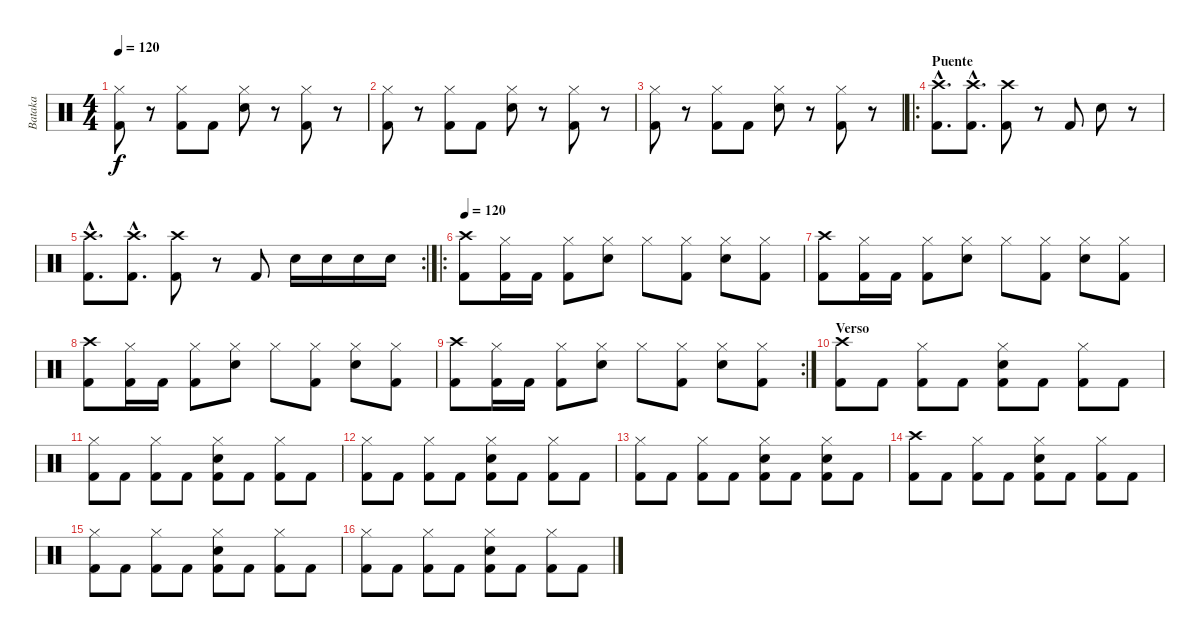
\track ("Bataka" "Bataka") {instrument percussion}
\staff {score}
\articulation defaults
\ts (4 4)
\tempo 120
\clef neutral
\ks c
("Hi-Hat (closed)" "Kick (hit) 2").8{dy f} r.8 ("Hi-Hat (closed)" "Kick (hit) 2").8 "Kick (hit) 2".8 ("Hi-Hat (closed)" "Snare (hit) 2").8 r.8 ("Hi-Hat (closed)" "Kick (hit) 2").8 r.8 |
("Hi-Hat (closed)" "Kick (hit) 2").8 r.8 ("Hi-Hat (closed)" "Kick (hit) 2").8 "Kick (hit) 2".8 ("Hi-Hat (closed)" "Snare (hit) 2").8 r.8 ("Hi-Hat (closed)" "Kick (hit) 2").8 r.8 |
("Hi-Hat (closed)" "Kick (hit) 2").8 r.8 ("Hi-Hat (closed)" "Kick (hit) 2").8 "Kick (hit) 2".8 ("Hi-Hat (closed)" "Snare (hit) 2").8 r.8 ("Hi-Hat (closed)" "Kick (hit) 2").8 r.8 |
\ro
\section ("" "Puente")
("Crash high (hit)"{hac} "Kick (hit) 2"{hac}).8{d} ("Crash high (hit)"{hac} "Kick (hit) 2"{hac}).8{d} ("Crash high (hit)" "Kick (hit) 2").8 r.8 "Kick (hit) 2".8 "Snare (hit) 2".8 r.8 |
\rc 2
("Crash high (hit)"{hac} "Kick (hit) 2"{hac}).8{d} ("Crash high (hit)"{hac} "Kick (hit) 2"{hac}).8{d} ("Crash high (hit)" "Kick (hit) 2").8 r.8 "Kick (hit) 2".8 "Snare (hit) 2".16 "Snare (hit) 2".16 "Snare (hit) 2".16 "Snare (hit) 2".16 |
\ro
\tempo 120
("Crash high (hit)" "Kick (hit) 2").8 ("Hi-Hat (closed)" "Kick (hit) 2").16 "Kick (hit) 2".16 ("Hi-Hat (closed)" "Kick (hit) 2").8 ("Hi-Hat (closed)" "Snare (hit) 2").8 "Hi-Hat (closed)".8 ("Hi-Hat (closed)" "Kick (hit) 2").8 ("Hi-Hat (closed)" "Snare (hit) 2").8 ("Hi-Hat (closed)" "Kick (hit) 2").8 |
("Crash high (hit)" "Kick (hit) 2").8 ("Hi-Hat (closed)" "Kick (hit) 2").16 "Kick (hit) 2".16 ("Hi-Hat (closed)" "Kick (hit) 2").8 ("Hi-Hat (closed)" "Snare (hit) 2").8 "Hi-Hat (closed)".8 ("Hi-Hat (closed)" "Kick (hit) 2").8 ("Hi-Hat (closed)" "Snare (hit) 2").8 ("Hi-Hat (closed)" "Kick (hit) 2").8 |
("Crash high (hit)" "Kick (hit) 2").8 ("Hi-Hat (closed)" "Kick (hit) 2").16 "Kick (hit) 2".16 ("Hi-Hat (closed)" "Kick (hit) 2").8 ("Hi-Hat (closed)" "Snare (hit) 2").8 "Hi-Hat (closed)".8 ("Hi-Hat (closed)" "Kick (hit) 2").8 ("Hi-Hat (closed)" "Snare (hit) 2").8 ("Hi-Hat (closed)" "Kick (hit) 2").8 |
\rc 2
("Crash high (hit)" "Kick (hit) 2").8 ("Hi-Hat (closed)" "Kick (hit) 2").16 "Kick (hit) 2".16 ("Hi-Hat (closed)" "Kick (hit) 2").8 ("Hi-Hat (closed)" "Snare (hit) 2").8 "Hi-Hat (closed)".8 ("Hi-Hat (closed)" "Kick (hit) 2").8 ("Hi-Hat (closed)" "Snare (hit) 2").8 ("Hi-Hat (closed)" "Kick (hit) 2").8 |
\section ("" "Verso")
("Crash high (hit)" "Kick (hit) 2").8 "Kick (hit) 2".8 ("Hi-Hat (closed)" "Kick (hit) 2").8 "Kick (hit) 2".8 ("Hi-Hat (closed)" "Snare (hit) 2" "Kick (hit) 2").8 "Kick (hit) 2".8 ("Hi-Hat (closed)" "Kick (hit) 2").8 "Kick (hit) 2".8 |
("Hi-Hat (closed)" "Kick (hit) 2").8 "Kick (hit) 2".8 ("Hi-Hat (closed)" "Kick (hit) 2").8 "Kick (hit) 2".8 ("Hi-Hat (closed)" "Snare (hit) 2" "Kick (hit) 2").8 "Kick (hit) 2".8 ("Hi-Hat (closed)" "Kick (hit) 2").8 "Kick (hit) 2".8 |
("Hi-Hat (closed)" "Kick (hit) 2").8 "Kick (hit) 2".8 ("Hi-Hat (closed)" "Kick (hit) 2").8 "Kick (hit) 2".8 ("Hi-Hat (closed)" "Snare (hit) 2" "Kick (hit) 2").8 "Kick (hit) 2".8 ("Hi-Hat (closed)" "Kick (hit) 2").8 "Kick (hit) 2".8 |
("Hi-Hat (closed)" "Kick (hit) 2").8 "Kick (hit) 2".8 ("Hi-Hat (closed)" "Kick (hit) 2").8 "Kick (hit) 2".8 ("Hi-Hat (closed)" "Snare (hit) 2" "Kick (hit) 2").8 "Kick (hit) 2".8 ("Hi-Hat (closed)" "Snare (hit) 2" "Kick (hit) 2").8 "Kick (hit) 2".8 |
("Crash high (hit)" "Kick (hit) 2").8 "Kick (hit) 2".8 ("Hi-Hat (closed)" "Kick (hit) 2").8 "Kick (hit) 2".8 ("Hi-Hat (closed)" "Snare (hit) 2" "Kick (hit) 2").8 "Kick (hit) 2".8 ("Hi-Hat (closed)" "Kick (hit) 2").8 "Kick (hit) 2".8 |
("Hi-Hat (closed)" "Kick (hit) 2").8 "Kick (hit) 2".8 ("Hi-Hat (closed)" "Kick (hit) 2").8 "Kick (hit) 2".8 ("Hi-Hat (closed)" "Snare (hit) 2" "Kick (hit) 2").8 "Kick (hit) 2".8 ("Hi-Hat (closed)" "Kick (hit) 2").8 "Kick (hit) 2".8 |
("Hi-Hat (closed)" "Kick (hit) 2").8 "Kick (hit) 2".8 ("Hi-Hat (closed)" "Kick (hit) 2").8 "Kick (hit) 2".8 ("Hi-Hat (closed)" "Snare (hit) 2" "Kick (hit) 2").8 "Kick (hit) 2".8 ("Hi-Hat (closed)" "Kick (hit) 2").8 "Kick (hit) 2".8
